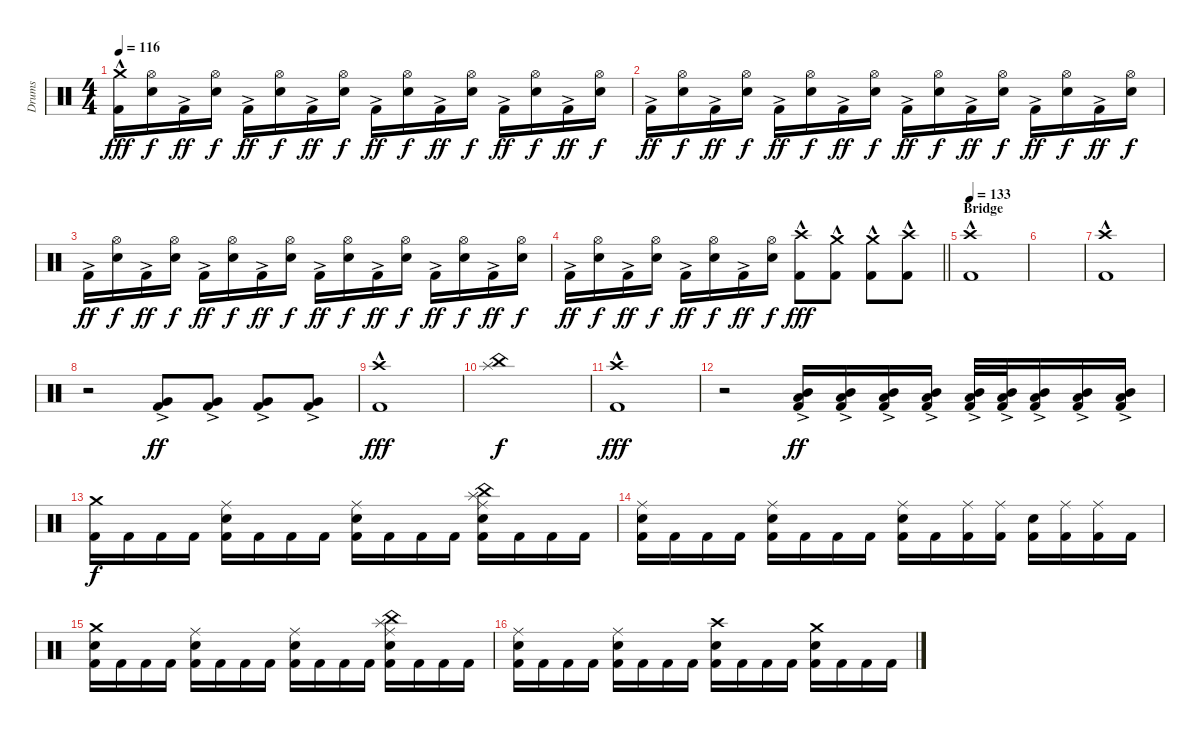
\track ("Drums" "Drums") {instrument percussion}
\staff {score}
\articulation defaults
\ts (4 4)
\tempo 116
\clef neutral
\ks c
("Crash medium (hit)" "Kick (hit) 2"{hac}).16{dy fff} ("Electric Snare (hit)" "Hi-Hat (open)").16{dy f} "Kick (hit) 2"{ac}.16{dy ff} ("Electric Snare (hit)" "Hi-Hat (open)").16{dy f} "Kick (hit) 2"{ac}.16{dy ff} ("Electric Snare (hit)" "Hi-Hat (open)").16{dy f} "Kick (hit) 2"{ac}.16{dy ff} ("Electric Snare (hit)" "Hi-Hat (open)").16{dy f} "Kick (hit) 2"{ac}.16{dy ff} ("Electric Snare (hit)" "Hi-Hat (open)").16{dy f} "Kick (hit) 2"{ac}.16{dy ff} ("Electric Snare (hit)" "Hi-Hat (open)").16{dy f} "Kick (hit) 2"{ac}.16{dy ff} ("Electric Snare (hit)" "Hi-Hat (open)").16{dy f} "Kick (hit) 2"{ac}.16{dy ff} ("Electric Snare (hit)" "Hi-Hat (open)").16{dy f} |
"Kick (hit) 2"{ac}.16{dy ff} ("Electric Snare (hit)" "Hi-Hat (open)").16{dy f} "Kick (hit) 2"{ac}.16{dy ff} ("Electric Snare (hit)" "Hi-Hat (open)").16{dy f} "Kick (hit) 2"{ac}.16{dy ff} ("Electric Snare (hit)" "Hi-Hat (open)").16{dy f} "Kick (hit) 2"{ac}.16{dy ff} ("Electric Snare (hit)" "Hi-Hat (open)").16{dy f} "Kick (hit) 2"{ac}.16{dy ff} ("Electric Snare (hit)" "Hi-Hat (open)").16{dy f} "Kick (hit) 2"{ac}.16{dy ff} ("Electric Snare (hit)" "Hi-Hat (open)").16{dy f} "Kick (hit) 2"{ac}.16{dy ff} ("Electric Snare (hit)" "Hi-Hat (open)").16{dy f} "Kick (hit) 2"{ac}.16{dy ff} ("Electric Snare (hit)" "Hi-Hat (open)").16{dy f} |
"Kick (hit) 2"{ac}.16{dy ff} ("Electric Snare (hit)" "Hi-Hat (open)").16{dy f} "Kick (hit) 2"{ac}.16{dy ff} ("Electric Snare (hit)" "Hi-Hat (open)").16{dy f} "Kick (hit) 2"{ac}.16{dy ff} ("Electric Snare (hit)" "Hi-Hat (open)").16{dy f} "Kick (hit) 2"{ac}.16{dy ff} ("Electric Snare (hit)" "Hi-Hat (open)").16{dy f} "Kick (hit) 2"{ac}.16{dy ff} ("Electric Snare (hit)" "Hi-Hat (open)").16{dy f} "Kick (hit) 2"{ac}.16{dy ff} ("Electric Snare (hit)" "Hi-Hat (open)").16{dy f} "Kick (hit) 2"{ac}.16{dy ff} ("Electric Snare (hit)" "Hi-Hat (open)").16{dy f} "Kick (hit) 2"{ac}.16{dy ff} ("Electric Snare (hit)" "Hi-Hat (open)").16{dy f} |
\barLineRight lightlight "Kick (hit) 2"{ac}.16{dy ff}
("Electric Snare (hit)" "Hi-Hat (open)").16{dy f} "Kick (hit) 2"{ac}.16{dy ff} ("Electric Snare (hit)" "Hi-Hat (open)").16{dy f} "Kick (hit) 2"{ac}.16{dy ff} ("Electric Snare (hit)" "Hi-Hat (open)").16{dy f} "Kick (hit) 2"{ac}.16{dy ff} ("Electric Snare (hit)" "Hi-Hat (open)").16{dy f} ("Crash high (hit)" "Kick (hit) 2"{hac}).8{dy fff} ("Crash medium (hit)" "Kick (hit) 2"{hac}).8 ("Crash medium (hit)" "Kick (hit) 2"{hac}).8 ("Crash high (hit)" "Kick (hit) 2"{hac}).8 |
\section ("" "Bridge")
\tempo 133
("Crash high (hit)" "Kick (hit) 2"{hac}).1 |
|
("Crash high (hit)" "Kick (hit) 2"{hac}).1 |
r.2 ("Very Low Tom (hit)"{ac} "Kick (hit) 2").8{dy ff} ("Very Low Tom (hit)"{ac} "Kick (hit) 2").8 ("Very Low Tom (hit)"{ac} "Kick (hit) 2").8 ("Very Low Tom (hit)"{ac} "Kick (hit) 2").8 |
("Crash high (hit)" "Kick (hit) 2"{hac}).1{dy fff} |
("China (hit)" "Splash (hit)").1{dy f} |
("Crash high (hit)" "Kick (hit) 2"{hac}).1{dy fff} |
r.2 ("Mid Tom (hit)" "Low Tom (hit)"{ac} "Kick (hit) 2").16{dy ff} ("Mid Tom (hit)" "Low Tom (hit)"{ac} "Kick (hit) 2").16 ("Mid Tom (hit)" "Low Tom (hit)"{ac} "Kick (hit) 2").16 ("Mid Tom (hit)" "Low Tom (hit)"{ac} "Kick (hit) 2").16 ("Mid Tom (hit)" "Low Tom (hit)" "Kick (hit) 2"{ac}).32 ("Mid Tom (hit)" "Low Tom (hit)" "Kick (hit) 2"{ac}).32 ("Mid Tom (hit)" "Low Tom (hit)" "Kick (hit) 2"{ac}).16 ("Mid Tom (hit)" "Low Tom (hit)" "Kick (hit) 2"{ac}).16 ("Mid Tom (hit)" "Low Tom (hit)" "Kick (hit) 2"{ac}).16 |
("Crash medium (hit)" "Kick (hit) 2").16{dy f} "Kick (hit) 2".16 "Kick (hit) 2".16 "Kick (hit) 2".16 ("Electric Snare (hit)" "Ride (middle)" "Kick (hit) 2").16 "Kick (hit) 2".16 "Kick (hit) 2".16 "Kick (hit) 2".16 ("Electric Snare (hit)" "Ride (middle)" "Kick (hit) 2").16 "Kick (hit) 2".16 "Kick (hit) 2".16 "Kick (hit) 2".16 ("Splash (hit)" "China (hit)" "Electric Snare (hit)" "Ride (middle)" "Kick (hit) 2").16 "Kick (hit) 2".16 "Kick (hit) 2".16 "Kick (hit) 2".16 |
("Electric Snare (hit)" "Ride (middle)" "Kick (hit) 2").16 "Kick (hit) 2".16 "Kick (hit) 2".16 "Kick (hit) 2".16 ("Electric Snare (hit)" "Ride (middle)" "Kick (hit) 2").16 "Kick (hit) 2".16 "Kick (hit) 2".16 "Kick (hit) 2".16 ("Electric Snare (hit)" "Ride (middle)" "Kick (hit) 2").16 "Kick (hit) 2".16 ("Ride (middle)" "Kick (hit) 2").16 ("Ride (middle)" "Kick (hit) 2").16 ("Electric Snare (hit)" "Kick (hit) 2").16 ("Ride (middle)" "Kick (hit) 2").16 ("Ride (middle)" "Kick (hit) 2").16 "Kick (hit) 2".16 |
("Crash medium (hit)" "Electric Snare (hit)" "Kick (hit) 2").16 "Kick (hit) 2".16 "Kick (hit) 2".16 "Kick (hit) 2".16 ("Electric Snare (hit)" "Ride (middle)" "Kick (hit) 2").16 "Kick (hit) 2".16 "Kick (hit) 2".16 "Kick (hit) 2".16 ("Electric Snare (hit)" "Ride (middle)" "Kick (hit) 2").16 "Kick (hit) 2".16 "Kick (hit) 2".16 "Kick (hit) 2".16 ("Splash (hit)" "China (hit)" "Electric Snare (hit)" "Ride (middle)" "Kick (hit) 2").16 "Kick (hit) 2".16 "Kick (hit) 2".16 "Kick (hit) 2".16 |
("Electric Snare (hit)" "Ride (middle)" "Kick (hit) 2").16 "Kick (hit) 2".16 "Kick (hit) 2".16 "Kick (hit) 2".16 ("Electric Snare (hit)" "Ride (middle)" "Kick (hit) 2").16 "Kick (hit) 2".16 "Kick (hit) 2".16 "Kick (hit) 2".16 ("Crash high (hit)" "Electric Snare (hit)" "Kick (hit) 2").16 "Kick (hit) 2".16 "Kick (hit) 2".16 "Kick (hit) 2".16 ("Crash medium (hit)" "Electric Snare (hit)" "Kick (hit) 2").16 "Kick (hit) 2".16 "Kick (hit) 2".16 "Kick (hit) 2".16
